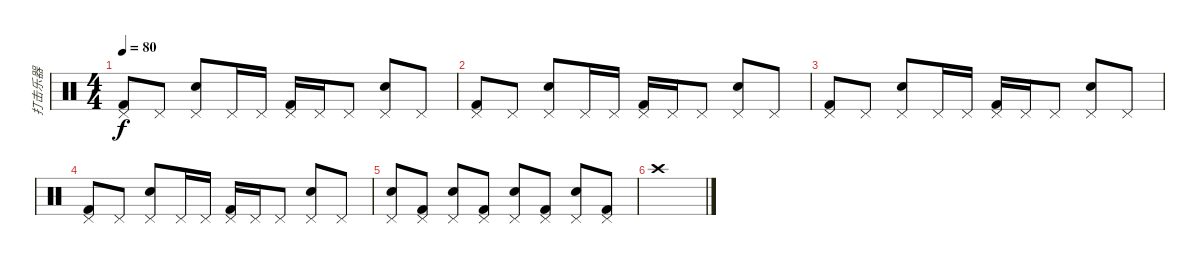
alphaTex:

\track ("打击乐器" "打击乐器") {instrument percussion}
\staff {score}
\articulation defaults
\ts (4 4)
\tempo 80
\clef neutral
\ks c
("Pedal Hi-Hat (hit)" "Kick (hit) 2").8{dy f} "Pedal Hi-Hat (hit)".8 ("Pedal Hi-Hat (hit)" "Snare (hit) 2").8 "Pedal Hi-Hat (hit)".16 "Pedal Hi-Hat (hit)".16 ("Pedal Hi-Hat (hit)" "Kick (hit) 2").16 "Pedal Hi-Hat (hit)".16 "Pedal Hi-Hat (hit)".8 ("Pedal Hi-Hat (hit)" "Snare (hit) 2").8 "Pedal Hi-Hat (hit)".8 |
("Pedal Hi-Hat (hit)" "Kick (hit) 2").8 "Pedal Hi-Hat (hit)".8 ("Pedal Hi-Hat (hit)" "Snare (hit) 2").8 "Pedal Hi-Hat (hit)".16 "Pedal Hi-Hat (hit)".16 ("Pedal Hi-Hat (hit)" "Kick (hit) 2").16 "Pedal Hi-Hat (hit)".16 "Pedal Hi-Hat (hit)".8 ("Pedal Hi-Hat (hit)" "Snare (hit) 2").8 "Pedal Hi-Hat (hit)".8 |
("Pedal Hi-Hat (hit)" "Kick (hit) 2").8 "Pedal Hi-Hat (hit)".8 ("Pedal Hi-Hat (hit)" "Snare (hit) 2").8 "Pedal Hi-Hat (hit)".16 "Pedal Hi-Hat (hit)".16 ("Pedal Hi-Hat (hit)" "Kick (hit) 2").16 "Pedal Hi-Hat (hit)".16 "Pedal Hi-Hat (hit)".8 ("Pedal Hi-Hat (hit)" "Snare (hit) 2").8 "Pedal Hi-Hat (hit)".8 |
("Pedal Hi-Hat (hit)" "Kick (hit) 2").8 "Pedal Hi-Hat (hit)".8 ("Pedal Hi-Hat (hit)" "Snare (hit) 2").8 "Pedal Hi-Hat (hit)".16 "Pedal Hi-Hat (hit)".16 ("Pedal Hi-Hat (hit)" "Kick (hit) 2").16 "Pedal Hi-Hat (hit)".16 "Pedal Hi-Hat (hit)".8 ("Pedal Hi-Hat (hit)" "Snare (hit) 2").8 "Pedal Hi-Hat (hit)".8 |
("Pedal Hi-Hat (hit)" "Snare (hit) 2").8 ("Pedal Hi-Hat (hit)" "Kick (hit) 2").8 ("Pedal Hi-Hat (hit)" "Snare (hit) 2").8 ("Pedal Hi-Hat (hit)" "Kick (hit) 2").8 ("Pedal Hi-Hat (hit)" "Snare (hit) 2").8 ("Pedal Hi-Hat (hit)" "Kick (hit) 2").8 ("Pedal Hi-Hat (hit)" "Snare (hit) 2").8 ("Pedal Hi-Hat (hit)" "Kick (hit) 2").8 |
"Crash high (hit)".1
